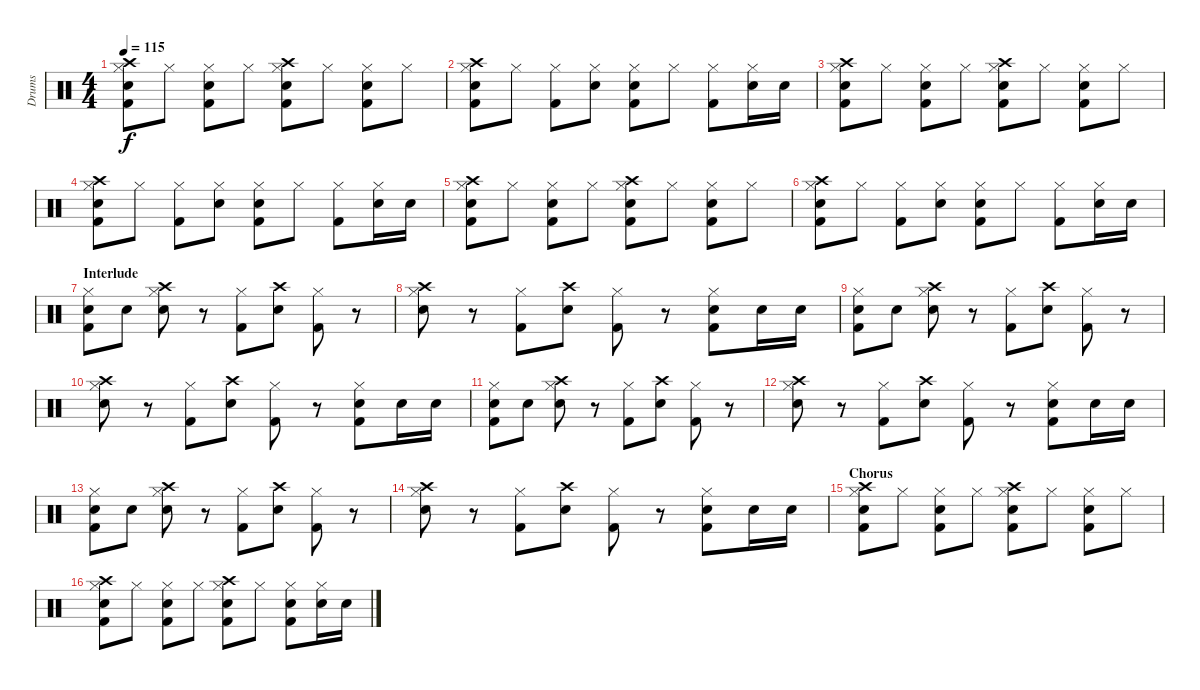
\track ("Drums" "Drums") {instrument percussion}
\staff {score}
\articulation defaults
\ts (4 4)
\tempo 115
\clef neutral
\ks c
("Hi-Hat (closed)" "Kick (hit) 2" "Snare (hit) 2" "Crash high (hit)").8{dy f} "Hi-Hat (closed)".8 ("Hi-Hat (closed)" "Kick (hit) 2" "Snare (hit) 2").8 "Hi-Hat (closed)".8 ("Hi-Hat (closed)" "Kick (hit) 2" "Snare (hit) 2" "Crash high (hit)").8 "Hi-Hat (closed)".8 ("Hi-Hat (closed)" "Kick (hit) 2" "Snare (hit) 2").8 "Hi-Hat (closed)".8 |
("Hi-Hat (closed)" "Kick (hit) 2" "Snare (hit) 2" "Crash high (hit)").8 "Hi-Hat (closed)".8 ("Hi-Hat (closed)" "Kick (hit) 2").8 ("Hi-Hat (closed)" "Snare (hit) 2").8 ("Hi-Hat (closed)" "Kick (hit) 2" "Snare (hit) 2").8 "Hi-Hat (closed)".8 ("Hi-Hat (closed)" "Kick (hit) 2").8 ("Hi-Hat (closed)" "Snare (hit) 2").16 "Snare (hit) 2".16 |
("Hi-Hat (closed)" "Kick (hit) 2" "Snare (hit) 2" "Crash high (hit)").8 "Hi-Hat (closed)".8 ("Hi-Hat (closed)" "Kick (hit) 2" "Snare (hit) 2").8 "Hi-Hat (closed)".8 ("Hi-Hat (closed)" "Kick (hit) 2" "Snare (hit) 2" "Crash high (hit)").8 "Hi-Hat (closed)".8 ("Hi-Hat (closed)" "Kick (hit) 2" "Snare (hit) 2").8 "Hi-Hat (closed)".8 |
("Hi-Hat (closed)" "Kick (hit) 2" "Snare (hit) 2" "Crash high (hit)").8 "Hi-Hat (closed)".8 ("Hi-Hat (closed)" "Kick (hit) 2").8 ("Hi-Hat (closed)" "Snare (hit) 2").8 ("Hi-Hat (closed)" "Kick (hit) 2" "Snare (hit) 2").8 "Hi-Hat (closed)".8 ("Hi-Hat (closed)" "Kick (hit) 2").8 ("Hi-Hat (closed)" "Snare (hit) 2").16 "Snare (hit) 2".16 |
("Hi-Hat (closed)" "Kick (hit) 2" "Snare (hit) 2" "Crash high (hit)").8 "Hi-Hat (closed)".8 ("Hi-Hat (closed)" "Kick (hit) 2" "Snare (hit) 2").8 "Hi-Hat (closed)".8 ("Hi-Hat (closed)" "Kick (hit) 2" "Snare (hit) 2" "Crash high (hit)").8 "Hi-Hat (closed)".8 ("Hi-Hat (closed)" "Kick (hit) 2" "Snare (hit) 2").8 "Hi-Hat (closed)".8 |
("Hi-Hat (closed)" "Kick (hit) 2" "Snare (hit) 2" "Crash high (hit)").8 "Hi-Hat (closed)".8 ("Hi-Hat (closed)" "Kick (hit) 2").8 ("Hi-Hat (closed)" "Snare (hit) 2").8 ("Hi-Hat (closed)" "Kick (hit) 2" "Snare (hit) 2").8 "Hi-Hat (closed)".8 ("Hi-Hat (closed)" "Kick (hit) 2").8 ("Hi-Hat (closed)" "Snare (hit) 2").16 "Snare (hit) 2".16 |
\section ("" "Interlude")
("Hi-Hat (closed)" "Kick (hit) 2" "Snare (hit) 2").8 "Snare (hit) 2".8 ("Hi-Hat (closed)" "Crash high (hit)" "Snare (hit) 2").8 r.8 ("Hi-Hat (closed)" "Kick (hit) 2").8 ("Crash high (hit)" "Snare (hit) 2").8 ("Hi-Hat (closed)" "Kick (hit) 2").8 r.8 |
("Hi-Hat (closed)" "Crash high (hit)" "Snare (hit) 2").8 r.8 ("Hi-Hat (closed)" "Kick (hit) 2").8 ("Crash high (hit)" "Snare (hit) 2").8 ("Hi-Hat (closed)" "Kick (hit) 2").8 r.8 ("Hi-Hat (closed)" "Kick (hit) 2" "Snare (hit) 2").8 "Snare (hit) 2".16 "Snare (hit) 2".16 |
("Hi-Hat (closed)" "Kick (hit) 2" "Snare (hit) 2").8 "Snare (hit) 2".8 ("Hi-Hat (closed)" "Crash high (hit)" "Snare (hit) 2").8 r.8 ("Hi-Hat (closed)" "Kick (hit) 2").8 ("Crash high (hit)" "Snare (hit) 2").8 ("Hi-Hat (closed)" "Kick (hit) 2").8 r.8 |
("Hi-Hat (closed)" "Crash high (hit)" "Snare (hit) 2").8 r.8 ("Hi-Hat (closed)" "Kick (hit) 2").8 ("Crash high (hit)" "Snare (hit) 2").8 ("Hi-Hat (closed)" "Kick (hit) 2").8 r.8 ("Hi-Hat (closed)" "Kick (hit) 2" "Snare (hit) 2").8 "Snare (hit) 2".16 "Snare (hit) 2".16 |
("Hi-Hat (closed)" "Kick (hit) 2" "Snare (hit) 2").8 "Snare (hit) 2".8 ("Hi-Hat (closed)" "Crash high (hit)" "Snare (hit) 2").8 r.8 ("Hi-Hat (closed)" "Kick (hit) 2").8 ("Crash high (hit)" "Snare (hit) 2").8 ("Hi-Hat (closed)" "Kick (hit) 2").8 r.8 |
("Hi-Hat (closed)" "Crash high (hit)" "Snare (hit) 2").8 r.8 ("Hi-Hat (closed)" "Kick (hit) 2").8 ("Crash high (hit)" "Snare (hit) 2").8 ("Hi-Hat (closed)" "Kick (hit) 2").8 r.8 ("Hi-Hat (closed)" "Kick (hit) 2" "Snare (hit) 2").8 "Snare (hit) 2".16 "Snare (hit) 2".16 |
("Hi-Hat (closed)" "Kick (hit) 2" "Snare (hit) 2").8 "Snare (hit) 2".8 ("Hi-Hat (closed)" "Crash high (hit)" "Snare (hit) 2").8 r.8 ("Hi-Hat (closed)" "Kick (hit) 2").8 ("Crash high (hit)" "Snare (hit) 2").8 ("Hi-Hat (closed)" "Kick (hit) 2").8 r.8 |
("Hi-Hat (closed)" "Crash high (hit)" "Snare (hit) 2").8 r.8 ("Hi-Hat (closed)" "Kick (hit) 2").8 ("Crash high (hit)" "Snare (hit) 2").8 ("Hi-Hat (closed)" "Kick (hit) 2").8 r.8 ("Hi-Hat (closed)" "Kick (hit) 2" "Snare (hit) 2").8 "Snare (hit) 2".16 "Snare (hit) 2".16 |
\section ("" "Chorus")
("Hi-Hat (closed)" "Kick (hit) 2" "Snare (hit) 2" "Crash high (hit)").8 "Hi-Hat (closed)".8 ("Hi-Hat (closed)" "Kick (hit) 2" "Snare (hit) 2").8 "Hi-Hat (closed)".8 ("Hi-Hat (closed)" "Kick (hit) 2" "Snare (hit) 2" "Crash high (hit)").8 "Hi-Hat (closed)".8 ("Hi-Hat (closed)" "Kick (hit) 2" "Snare (hit) 2").8 "Hi-Hat (closed)".8 |
("Hi-Hat (closed)" "Kick (hit) 2" "Snare (hit) 2" "Crash high (hit)").8 "Hi-Hat (closed)".8 ("Hi-Hat (closed)" "Kick (hit) 2" "Snare (hit) 2").8 "Hi-Hat (closed)".8 ("Hi-Hat (closed)" "Kick (hit) 2" "Snare (hit) 2" "Crash high (hit)").8 "Hi-Hat (closed)".8 ("Hi-Hat (closed)" "Kick (hit) 2" "Snare (hit) 2").8 ("Hi-Hat (closed)" "Snare (hit) 2").16 "Snare (hit) 2".16
